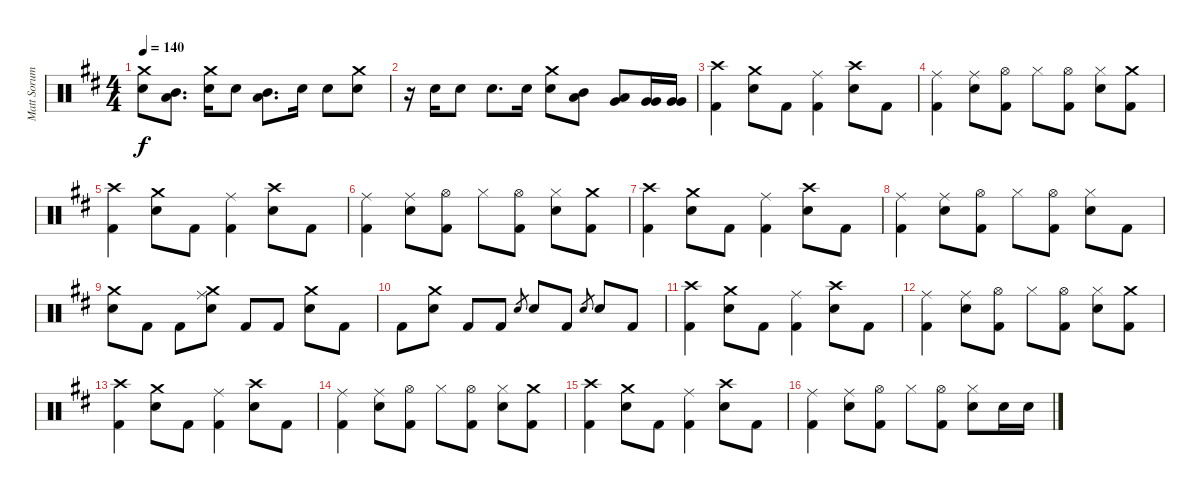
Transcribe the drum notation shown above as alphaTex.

\track ("Matt Sorum - Drums" "Matt Sorum") {instrument percussion}
\staff {score}
\articulation defaults
\ts (4 4)
\tempo 140
\clef neutral
\ks d
("Crash medium (hit)" "Snare (hit) 2").8{dy f} ("Mid Tom (hit)" "Low Tom (hit)").8{d} ("Crash medium (hit)" "Snare (hit) 2").16 "Snare (hit) 2".8 ("Mid Tom (hit)" "Low Tom (hit)").8{d} "Snare (hit) 2".16 "Snare (hit) 2".8 ("Crash medium (hit)" "Snare (hit) 2").8 |
r.16 "Snare (hit) 2".16 "Snare (hit) 2".8 "Snare (hit) 2".8{d} "Snare (hit) 2".16 ("Crash medium (hit)" "Snare (hit) 2").8 ("Mid Tom (hit)" "Low Tom (hit)").8 ("Very Low Tom (hit)" "Low Tom (hit)").8 ("Very Low Tom (hit)" "Very Low Tom (hit)").16 ("Very Low Tom (hit)" "Very Low Tom (hit)").16 |
("Crash high (hit)" "Kick (hit) 2").4 ("Crash medium (hit)" "Snare (hit) 2").8 "Kick (hit) 2".8 ("Ride (middle)" "Kick (hit) 2").4 ("Crash high (hit)" "Snare (hit) 2").8 "Kick (hit) 2".8 |
("Ride (middle)" "Kick (hit) 2").4 ("Ride (middle)" "Snare (hit) 2").8 ("Hi-Hat (open)" "Kick (hit) 2").8 "Hi-Hat (closed)".8 ("Hi-Hat (open)" "Kick (hit) 2").8 ("Hi-Hat (closed)" "Snare (hit) 2").8 ("Crash medium (hit)" "Kick (hit) 2").8 |
("Crash high (hit)" "Kick (hit) 2").4 ("Crash medium (hit)" "Snare (hit) 2").8 "Kick (hit) 2".8 ("Ride (middle)" "Kick (hit) 2").4 ("Crash high (hit)" "Snare (hit) 2").8 "Kick (hit) 2".8 |
("Ride (middle)" "Kick (hit) 2").4 ("Ride (middle)" "Snare (hit) 2").8 ("Hi-Hat (open)" "Kick (hit) 2").8 "Hi-Hat (closed)".8 ("Hi-Hat (open)" "Kick (hit) 2").8 ("Hi-Hat (closed)" "Snare (hit) 2").8 ("Crash medium (hit)" "Kick (hit) 2").8 |
("Crash high (hit)" "Kick (hit) 2").4 ("Crash medium (hit)" "Snare (hit) 2").8 "Kick (hit) 2".8 ("Ride (middle)" "Kick (hit) 2").4 ("Crash high (hit)" "Snare (hit) 2").8 "Kick (hit) 2".8 |
("Ride (middle)" "Kick (hit) 2").4 ("Ride (middle)" "Snare (hit) 2").8 ("Hi-Hat (open)" "Kick (hit) 2").8 "Hi-Hat (closed)".8 ("Hi-Hat (open)" "Kick (hit) 2").8 ("Hi-Hat (closed)" "Snare (hit) 2").8 "Kick (hit) 2".8 |
("Crash medium (hit)" "Snare (hit) 2").8 "Kick (hit) 2".8 "Kick (hit) 2".8 ("Crash medium (hit)" "Ride (middle)" "Snare (hit) 2").8 "Kick (hit) 2".8 "Kick (hit) 2".8 ("Crash medium (hit)" "Snare (hit) 2").8 "Kick (hit) 2".8 |
"Kick (hit) 2".8 ("Crash medium (hit)" "Snare (hit) 2").8 "Kick (hit) 2".8 "Kick (hit) 2".8 "Snare (hit) 2".8{gr} "Snare (hit) 2".8 "Kick (hit) 2".8 "Snare (hit) 2".8{gr} "Snare (hit) 2".8 "Kick (hit) 2".8 |
("Crash high (hit)" "Kick (hit) 2").4 ("Crash medium (hit)" "Snare (hit) 2").8 "Kick (hit) 2".8 ("Ride (middle)" "Kick (hit) 2").4 ("Crash high (hit)" "Snare (hit) 2").8 "Kick (hit) 2".8 |
("Ride (middle)" "Kick (hit) 2").4 ("Ride (middle)" "Snare (hit) 2").8 ("Hi-Hat (open)" "Kick (hit) 2").8 "Hi-Hat (closed)".8 ("Hi-Hat (open)" "Kick (hit) 2").8 ("Hi-Hat (closed)" "Snare (hit) 2").8 ("Crash medium (hit)" "Kick (hit) 2").8 |
("Crash high (hit)" "Kick (hit) 2").4 ("Crash medium (hit)" "Snare (hit) 2").8 "Kick (hit) 2".8 ("Ride (middle)" "Kick (hit) 2").4 ("Crash high (hit)" "Snare (hit) 2").8 "Kick (hit) 2".8 |
("Ride (middle)" "Kick (hit) 2").4 ("Ride (middle)" "Snare (hit) 2").8 ("Hi-Hat (open)" "Kick (hit) 2").8 "Hi-Hat (closed)".8 ("Hi-Hat (open)" "Kick (hit) 2").8 ("Hi-Hat (closed)" "Snare (hit) 2").8 ("Crash medium (hit)" "Kick (hit) 2").8 |
("Crash high (hit)" "Kick (hit) 2").4 ("Crash medium (hit)" "Snare (hit) 2").8 "Kick (hit) 2".8 ("Ride (middle)" "Kick (hit) 2").4 ("Crash high (hit)" "Snare (hit) 2").8 "Kick (hit) 2".8 |
("Ride (middle)" "Kick (hit) 2").4 ("Ride (middle)" "Snare (hit) 2").8 ("Hi-Hat (open)" "Kick (hit) 2").8 "Hi-Hat (closed)".8 ("Hi-Hat (open)" "Kick (hit) 2").8 ("Hi-Hat (closed)" "Snare (hit) 2").8 "Snare (hit) 2".16 "Snare (hit) 2".16
